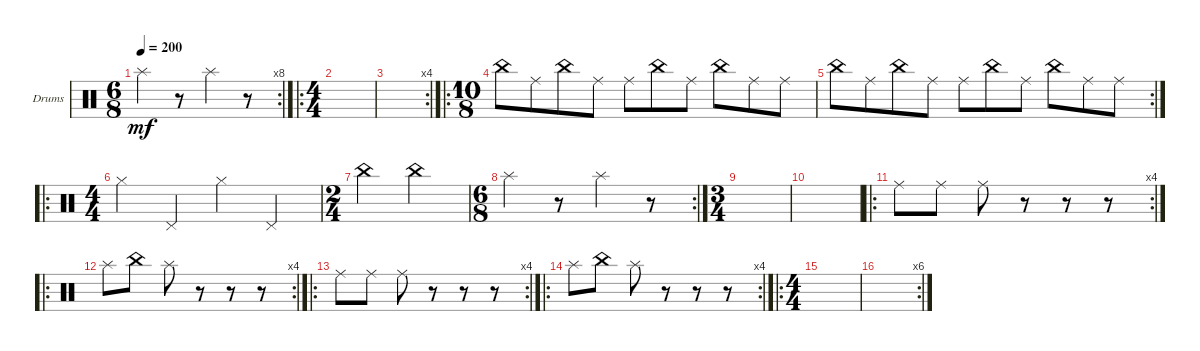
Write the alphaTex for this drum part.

\defaultSystemsLayout 4
\bracketExtendMode groupsimilarinstruments
\firstSystemTrackNameOrientation horizontal
\otherSystemsTrackNameOrientation horizontal
\track ("Midget Caverly" "Drums") {instrument percussion}
\staff {score}
\articulation defaults
\rc 8
\ts (6 8)
\tempo 200
\clef neutral
\ks c "Splash (hit)".4{dy mf}
r.8 "Splash (hit)".4 r.8 |
\ro
\ts (4 4)
|
\rc 4
|
\ro
\ts (10 8)
"China (hit)".8 "Ride (middle)".8 "China (hit)".8 "Ride (middle)".8 "Ride (middle)".8 "China (hit)".8 "Ride (middle)".8 "China (hit)".8 "Ride (middle)".8 "Ride (middle)".8 |
\rc 2 "China (hit)".8 "Ride (middle)".8 "China (hit)".8 "Ride (middle)".8 "Ride (middle)".8 "China (hit)".8 "Ride (middle)".8 "China (hit)".8 "Ride (middle)".8 "Ride (middle)".8
|
\ro
\ts (4 4)
"Hi-Hat (closed)".4 "Pedal Hi-Hat (hit)".4 "Hi-Hat (closed)".4 "Pedal Hi-Hat (hit)".4 |
\ts (2 4)
"China (hit)".4 "China (hit)".4 |
\rc 2
\ts (6 8)
"Splash (hit)".4 r.8 "Splash (hit)".4 r.8 |
\ts (3 4)
|
|
\ro
\rc 4 "Ride (middle)".8 "Ride (middle)".8 "Ride (middle)".8
r.8 r.8 r.8 |
\ro
\rc 4 "Splash (hit)".8 "China (hit)".8 "Splash (hit)".8
r.8 r.8 r.8 |
\ro
\rc 4 "Ride (middle)".8 "Ride (middle)".8 "Ride (middle)".8
r.8 r.8 r.8 |
\ro
\rc 4 "Splash (hit)".8 "China (hit)".8 "Splash (hit)".8
r.8 r.8 r.8 |
\ro
\ts (4 4)
|
\rc 6
